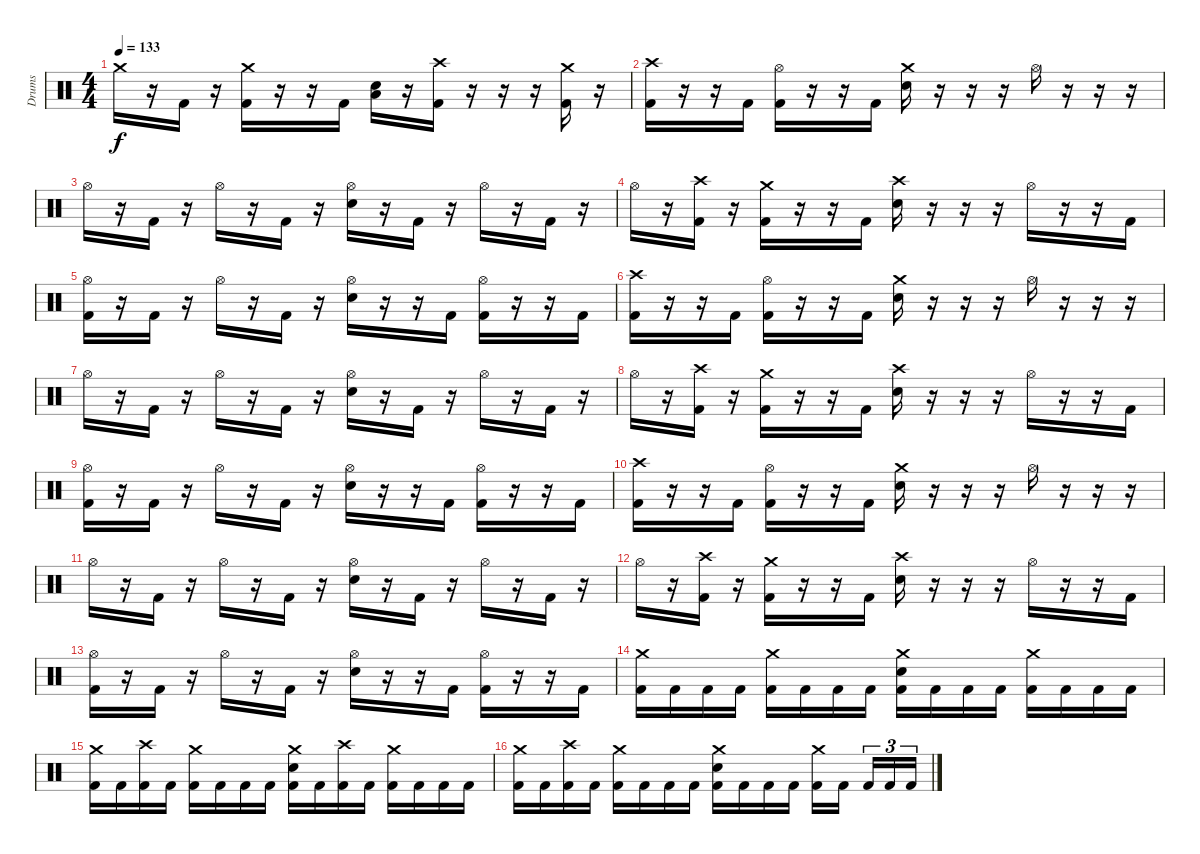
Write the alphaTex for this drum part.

\track ("Drums" "Drums") {instrument percussion}
\staff {score}
\articulation defaults
\ts (4 4)
\tempo 133
\clef neutral
\ks c "Crash medium (hit)".16{dy f}
r.16 "Kick (hit) 2".16 r.16 ("Crash medium (hit)" "Kick (hit) 2").16 r.16 r.16 "Kick (hit) 2".16 ("Low Floor Tom (hit)" "Snare (hit) 2").16 r.16 ("Crash high (hit)" "Kick (hit) 2").16 r.16 r.16 r.16 ("Crash medium (hit)" "Kick (hit) 2").16 r.16 |
("Crash high (hit)" "Kick (hit) 2").16 r.16 r.16 "Kick (hit) 2".16 ("Hi-Hat (open)" "Kick (hit) 2").16 r.16 r.16 "Kick (hit) 2".16 ("Crash medium (hit)" "Snare (hit) 2").16 r.16 r.16 r.16 "Hi-Hat (open)".16 r.16 r.16 r.16 |
"Hi-Hat (open)".16 r.16 "Kick (hit) 2".16 r.16 "Hi-Hat (open)".16 r.16 "Kick (hit) 2".16 r.16 ("Hi-Hat (open)" "Snare (hit) 2").16 r.16 "Kick (hit) 2".16 r.16 "Hi-Hat (open)".16 r.16 "Kick (hit) 2".16 r.16 |
"Hi-Hat (open)".16 r.16 ("Crash high (hit)" "Kick (hit) 2").16 r.16 ("Crash medium (hit)" "Kick (hit) 2").16 r.16 r.16 "Kick (hit) 2".16 ("Crash high (hit)" "Snare (hit) 2").16 r.16 r.16 r.16 "Hi-Hat (open)".16 r.16 r.16 "Kick (hit) 2".16 |
("Hi-Hat (open)" "Kick (hit) 2").16 r.16 "Kick (hit) 2".16 r.16 "Hi-Hat (open)".16 r.16 "Kick (hit) 2".16 r.16 ("Hi-Hat (open)" "Snare (hit) 2").16 r.16 r.16 "Kick (hit) 2".16 ("Hi-Hat (open)" "Kick (hit) 2").16 r.16 r.16 "Kick (hit) 2".16 |
("Crash high (hit)" "Kick (hit) 2").16 r.16 r.16 "Kick (hit) 2".16 ("Hi-Hat (open)" "Kick (hit) 2").16 r.16 r.16 "Kick (hit) 2".16 ("Crash medium (hit)" "Snare (hit) 2").16 r.16 r.16 r.16 "Hi-Hat (open)".16 r.16 r.16 r.16 |
"Hi-Hat (open)".16 r.16 "Kick (hit) 2".16 r.16 "Hi-Hat (open)".16 r.16 "Kick (hit) 2".16 r.16 ("Hi-Hat (open)" "Snare (hit) 2").16 r.16 "Kick (hit) 2".16 r.16 "Hi-Hat (open)".16 r.16 "Kick (hit) 2".16 r.16 |
"Hi-Hat (open)".16 r.16 ("Crash high (hit)" "Kick (hit) 2").16 r.16 ("Crash medium (hit)" "Kick (hit) 2").16 r.16 r.16 "Kick (hit) 2".16 ("Crash high (hit)" "Snare (hit) 2").16 r.16 r.16 r.16 "Hi-Hat (open)".16 r.16 r.16 "Kick (hit) 2".16 |
("Hi-Hat (open)" "Kick (hit) 2").16 r.16 "Kick (hit) 2".16 r.16 "Hi-Hat (open)".16 r.16 "Kick (hit) 2".16 r.16 ("Hi-Hat (open)" "Snare (hit) 2").16 r.16 r.16 "Kick (hit) 2".16 ("Hi-Hat (open)" "Kick (hit) 2").16 r.16 r.16 "Kick (hit) 2".16 |
("Crash high (hit)" "Kick (hit) 2").16 r.16 r.16 "Kick (hit) 2".16 ("Hi-Hat (open)" "Kick (hit) 2").16 r.16 r.16 "Kick (hit) 2".16 ("Crash medium (hit)" "Snare (hit) 2").16 r.16 r.16 r.16 "Hi-Hat (open)".16 r.16 r.16 r.16 |
"Hi-Hat (open)".16 r.16 "Kick (hit) 2".16 r.16 "Hi-Hat (open)".16 r.16 "Kick (hit) 2".16 r.16 ("Hi-Hat (open)" "Snare (hit) 2").16 r.16 "Kick (hit) 2".16 r.16 "Hi-Hat (open)".16 r.16 "Kick (hit) 2".16 r.16 |
"Hi-Hat (open)".16 r.16 ("Crash high (hit)" "Kick (hit) 2").16 r.16 ("Crash medium (hit)" "Kick (hit) 2").16 r.16 r.16 "Kick (hit) 2".16 ("Crash high (hit)" "Snare (hit) 2").16 r.16 r.16 r.16 "Hi-Hat (open)".16 r.16 r.16 "Kick (hit) 2".16 |
("Hi-Hat (open)" "Kick (hit) 2").16 r.16 "Kick (hit) 2".16 r.16 "Hi-Hat (open)".16 r.16 "Kick (hit) 2".16 r.16 ("Hi-Hat (open)" "Snare (hit) 2").16 r.16 r.16 "Kick (hit) 2".16 ("Hi-Hat (open)" "Kick (hit) 2").16 r.16 r.16 "Kick (hit) 2".16 |
("Crash medium (hit)" "Kick (hit) 2").16 "Kick (hit) 2".16 "Kick (hit) 2".16 "Kick (hit) 2".16 ("Crash medium (hit)" "Kick (hit) 2").16 "Kick (hit) 2".16 "Kick (hit) 2".16 "Kick (hit) 2".16 ("Crash medium (hit)" "Snare (hit) 2" "Kick (hit) 2").16 "Kick (hit) 2".16 "Kick (hit) 2".16 "Kick (hit) 2".16 ("Crash medium (hit)" "Kick (hit) 2").16 "Kick (hit) 2".16 "Kick (hit) 2".16 "Kick (hit) 2".16 |
("Crash medium (hit)" "Kick (hit) 2").16 "Kick (hit) 2".16 ("Crash high (hit)" "Kick (hit) 2").16 "Kick (hit) 2".16 ("Crash medium (hit)" "Kick (hit) 2").16 "Kick (hit) 2".16 "Kick (hit) 2".16 "Kick (hit) 2".16 ("Crash medium (hit)" "Snare (hit) 2" "Kick (hit) 2").16 "Kick (hit) 2".16 ("Crash high (hit)" "Kick (hit) 2").16 "Kick (hit) 2".16 ("Crash medium (hit)" "Kick (hit) 2").16 "Kick (hit) 2".16 "Kick (hit) 2".16 "Kick (hit) 2".16 |
("Crash medium (hit)" "Kick (hit) 2").16 "Kick (hit) 2".16 ("Crash high (hit)" "Kick (hit) 2").16 "Kick (hit) 2".16 ("Crash medium (hit)" "Kick (hit) 2").16 "Kick (hit) 2".16 "Kick (hit) 2".16 "Kick (hit) 2".16 ("Crash medium (hit)" "Snare (hit) 2" "Kick (hit) 2").16 "Kick (hit) 2".16 "Kick (hit) 2".16 "Kick (hit) 2".16 ("Crash medium (hit)" "Kick (hit) 2").16 "Kick (hit) 2".16{beam splitsecondary} "Kick (hit) 2".16{tu (3 2)} "Kick (hit) 2".16{tu (3 2)} "Kick (hit) 2".16{tu (3 2)}
